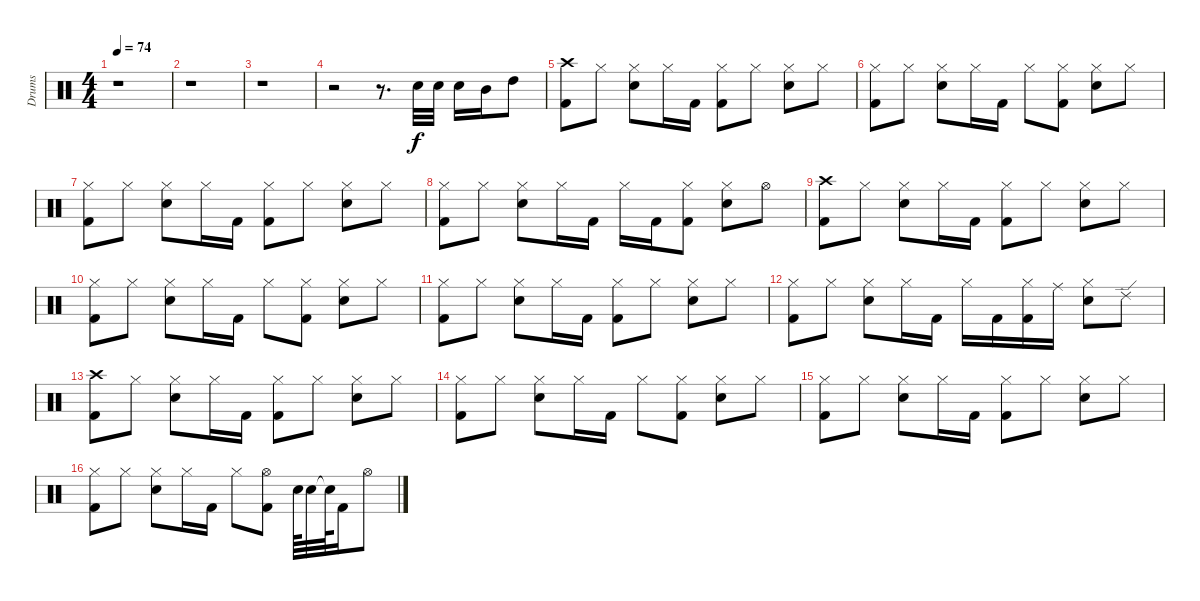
\track ("Drums" "Drums") {instrument percussion}
\staff {score}
\articulation defaults
\ts (4 4)
\tempo 74
\clef neutral
\ks c
r.1{dy f} |
r.1 |
r.1 |
r.2 r.8{d} "Snare (hit) 2".32 "Snare (hit) 2".32 "Snare (hit) 2".16 "Mid Tom (hit)".16 "High Tom (hit)".8 |
("Crash high (hit)" "Kick (hit) 2").8 "Hi-Hat (closed)".8 ("Hi-Hat (closed)" "Snare (hit) 2").8 "Hi-Hat (closed)".16 "Kick (hit) 2".16 ("Hi-Hat (closed)" "Kick (hit) 2").8 "Hi-Hat (closed)".8 ("Hi-Hat (closed)" "Snare (hit) 2").8 "Hi-Hat (closed)".8 |
("Hi-Hat (closed)" "Kick (hit) 2").8 "Hi-Hat (closed)".8 ("Hi-Hat (closed)" "Snare (hit) 2").8 "Hi-Hat (closed)".16 "Kick (hit) 2".16 "Hi-Hat (closed)".8 ("Hi-Hat (closed)" "Kick (hit) 2").8 ("Hi-Hat (closed)" "Snare (hit) 2").8 "Hi-Hat (closed)".8 |
("Hi-Hat (closed)" "Kick (hit) 2").8 "Hi-Hat (closed)".8 ("Hi-Hat (closed)" "Snare (hit) 2").8 "Hi-Hat (closed)".16 "Kick (hit) 2".16 ("Hi-Hat (closed)" "Kick (hit) 2").8 "Hi-Hat (closed)".8 ("Hi-Hat (closed)" "Snare (hit) 2").8 "Hi-Hat (closed)".8 |
("Hi-Hat (closed)" "Kick (hit) 2").8 "Hi-Hat (closed)".8 ("Hi-Hat (closed)" "Snare (hit) 2").8 "Hi-Hat (closed)".16 "Kick (hit) 2".16 "Hi-Hat (closed)".16 "Kick (hit) 2".16 ("Hi-Hat (closed)" "Kick (hit) 2").8 ("Hi-Hat (closed)" "Snare (hit) 2").8 "Hi-Hat (open)".8 |
("Crash high (hit)" "Kick (hit) 2").8 "Hi-Hat (closed)".8 ("Hi-Hat (closed)" "Snare (hit) 2").8 "Hi-Hat (closed)".16 "Kick (hit) 2".16 ("Hi-Hat (closed)" "Kick (hit) 2").8 "Hi-Hat (closed)".8 ("Hi-Hat (closed)" "Snare (hit) 2").8 "Hi-Hat (closed)".8 |
("Hi-Hat (closed)" "Kick (hit) 2").8 "Hi-Hat (closed)".8 ("Hi-Hat (closed)" "Snare (hit) 2").8 "Hi-Hat (closed)".16 "Kick (hit) 2".16 "Hi-Hat (closed)".8 ("Hi-Hat (closed)" "Kick (hit) 2").8 ("Hi-Hat (closed)" "Snare (hit) 2").8 "Hi-Hat (closed)".8 |
("Hi-Hat (closed)" "Kick (hit) 2").8 "Hi-Hat (closed)".8 ("Hi-Hat (closed)" "Snare (hit) 2").8 "Hi-Hat (closed)".16 "Kick (hit) 2".16 ("Hi-Hat (closed)" "Kick (hit) 2").8 "Hi-Hat (closed)".8 ("Hi-Hat (closed)" "Snare (hit) 2").8 "Hi-Hat (closed)".8 |
("Hi-Hat (closed)" "Kick (hit) 2").8 "Hi-Hat (closed)".8 ("Hi-Hat (closed)" "Snare (hit) 2").8 "Hi-Hat (closed)".16 "Kick (hit) 2".16 "Hi-Hat (closed)".16 "Kick (hit) 2".16 ("Hi-Hat (closed)" "Kick (hit) 2").16 "Ride (middle)".16 ("Hi-Hat (closed)" "Snare (hit) 2").8 "Ride (edge) 2".8 |
("Crash high (hit)" "Kick (hit) 2").8 "Hi-Hat (closed)".8 ("Hi-Hat (closed)" "Snare (hit) 2").8 "Hi-Hat (closed)".16 "Kick (hit) 2".16 ("Hi-Hat (closed)" "Kick (hit) 2").8 "Hi-Hat (closed)".8 ("Hi-Hat (closed)" "Snare (hit) 2").8 "Hi-Hat (closed)".8 |
("Hi-Hat (closed)" "Kick (hit) 2").8 "Hi-Hat (closed)".8 ("Hi-Hat (closed)" "Snare (hit) 2").8 "Hi-Hat (closed)".16 "Kick (hit) 2".16 "Hi-Hat (closed)".8 ("Hi-Hat (closed)" "Kick (hit) 2").8 ("Hi-Hat (closed)" "Snare (hit) 2").8 "Hi-Hat (closed)".8 |
("Hi-Hat (closed)" "Kick (hit) 2").8 "Hi-Hat (closed)".8 ("Hi-Hat (closed)" "Snare (hit) 2").8 "Hi-Hat (closed)".16 "Kick (hit) 2".16 ("Hi-Hat (closed)" "Kick (hit) 2").8 "Hi-Hat (closed)".8 ("Hi-Hat (closed)" "Snare (hit) 2").8 "Hi-Hat (closed)".8 |
("Hi-Hat (closed)" "Kick (hit) 2").8 "Hi-Hat (closed)".8 ("Hi-Hat (closed)" "Snare (hit) 2").8 "Hi-Hat (closed)".16 "Kick (hit) 2".16 "Hi-Hat (closed)".8 ("Hi-Hat (open)" "Kick (hit) 2").8 "Snare (hit) 2".64 "Snare (hit) 2".32 "Electric Snare (hit)"{t}.64 "Kick (hit) 2".16 "Hi-Hat (open)".8
